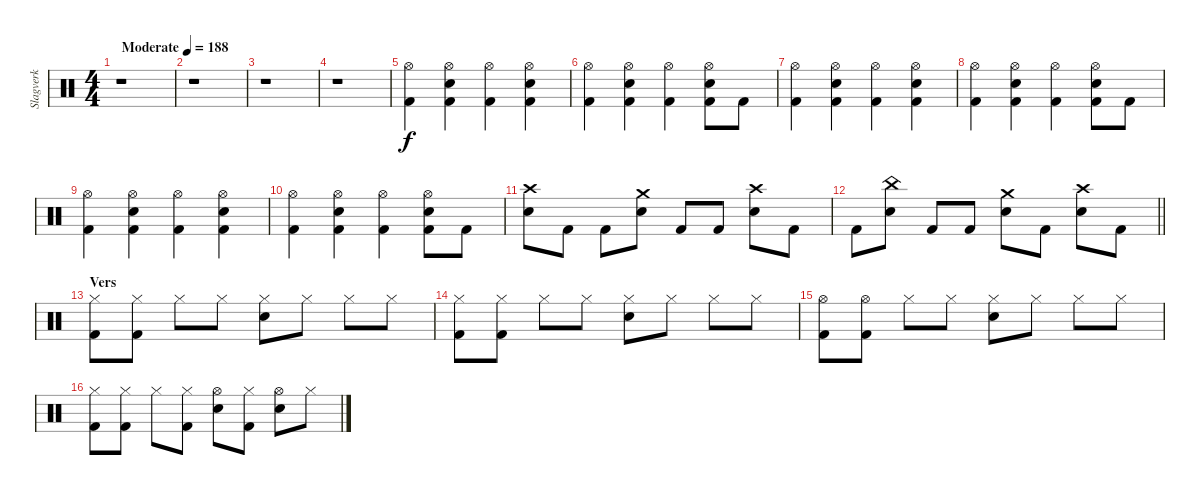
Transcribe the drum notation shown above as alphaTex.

\track ("Slagverk" "Slagverk") {instrument percussion}
\staff {score}
\articulation defaults
\ts (4 4)
\tempo (188 "Moderate")
\clef neutral
\ks c
r.1{dy f} |
r.1 |
r.1 |
r.1 |
("Hi-Hat (open)" "Kick (hit) 2").4 ("Hi-Hat (open)" "Electric Snare (hit)" "Kick (hit) 2").4 ("Hi-Hat (open)" "Kick (hit) 2").4 ("Hi-Hat (open)" "Electric Snare (hit)" "Kick (hit) 2").4 |
("Hi-Hat (open)" "Kick (hit) 2").4 ("Hi-Hat (open)" "Electric Snare (hit)" "Kick (hit) 2").4 ("Hi-Hat (open)" "Kick (hit) 2").4 ("Hi-Hat (open)" "Electric Snare (hit)" "Kick (hit) 2").8 "Kick (hit) 2".8 |
("Hi-Hat (open)" "Kick (hit) 2").4 ("Hi-Hat (open)" "Electric Snare (hit)" "Kick (hit) 2").4 ("Hi-Hat (open)" "Kick (hit) 2").4 ("Hi-Hat (open)" "Electric Snare (hit)" "Kick (hit) 2").4 |
("Hi-Hat (open)" "Kick (hit) 2").4 ("Hi-Hat (open)" "Electric Snare (hit)" "Kick (hit) 2").4 ("Hi-Hat (open)" "Kick (hit) 2").4 ("Hi-Hat (open)" "Electric Snare (hit)" "Kick (hit) 2").8 "Kick (hit) 2".8 |
("Hi-Hat (open)" "Kick (hit) 2").4 ("Hi-Hat (open)" "Electric Snare (hit)" "Kick (hit) 2").4 ("Hi-Hat (open)" "Kick (hit) 2").4 ("Hi-Hat (open)" "Electric Snare (hit)" "Kick (hit) 2").4 |
("Hi-Hat (open)" "Kick (hit) 2").4 ("Hi-Hat (open)" "Electric Snare (hit)" "Kick (hit) 2").4 ("Hi-Hat (open)" "Kick (hit) 2").4 ("Hi-Hat (open)" "Electric Snare (hit)" "Kick (hit) 2").8 "Kick (hit) 2".8 |
("Crash high (hit)" "Electric Snare (hit)").8 "Kick (hit) 2".8 "Kick (hit) 2".8 ("Crash medium (hit)" "Electric Snare (hit)").8 "Kick (hit) 2".8 "Kick (hit) 2".8 ("Crash high (hit)" "Electric Snare (hit)").8 "Kick (hit) 2".8 |
\barLineRight lightlight "Kick (hit) 2".8
("China (hit)" "Electric Snare (hit)").8 "Kick (hit) 2".8 "Kick (hit) 2".8 ("Crash medium (hit)" "Electric Snare (hit)").8 "Kick (hit) 2".8 ("Crash high (hit)" "Electric Snare (hit)").8 "Kick (hit) 2".8 |
\section ("" "Vers")
("Hi-Hat (closed)" "Kick (hit) 2").8 ("Hi-Hat (closed)" "Kick (hit) 2").8 "Hi-Hat (closed)".8 "Hi-Hat (closed)".8 ("Hi-Hat (closed)" "Electric Snare (hit)").8 "Hi-Hat (closed)".8 "Hi-Hat (closed)".8 "Hi-Hat (closed)".8 |
("Hi-Hat (closed)" "Kick (hit) 2").8 ("Hi-Hat (closed)" "Kick (hit) 2").8 "Hi-Hat (closed)".8 "Hi-Hat (closed)".8 ("Hi-Hat (closed)" "Electric Snare (hit)").8 "Hi-Hat (closed)".8 "Hi-Hat (closed)".8 "Hi-Hat (closed)".8 |
("Hi-Hat (open)" "Kick (hit) 2").8 ("Hi-Hat (open)" "Kick (hit) 2").8 "Hi-Hat (closed)".8 "Hi-Hat (closed)".8 ("Hi-Hat (closed)" "Electric Snare (hit)").8 "Hi-Hat (closed)".8 "Hi-Hat (closed)".8 "Hi-Hat (closed)".8 |
("Hi-Hat (closed)" "Kick (hit) 2").8 ("Hi-Hat (closed)" "Kick (hit) 2").8 "Hi-Hat (closed)".8 ("Hi-Hat (closed)" "Kick (hit) 2").8 ("Hi-Hat (open)" "Electric Snare (hit)").8 ("Hi-Hat (closed)" "Kick (hit) 2").8 ("Hi-Hat (open)" "Electric Snare (hit)").8 "Hi-Hat (closed)".8
